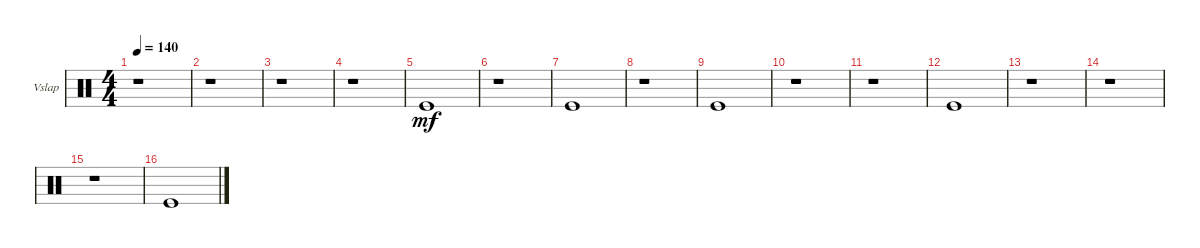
\defaultSystemsLayout 4
\bracketExtendMode groupsimilarinstruments
\firstSystemTrackNameOrientation horizontal
\otherSystemsTrackNameOrientation horizontal
\track ("Vibraslap" "Vslap") {instrument percussion}
\staff {score}
\articulation defaults
\ts (4 4)
\tempo 140
\clef neutral
\scale
0.25
\ks c
r.1{dy f} |
\scale
0.25 r.1 |
\scale
0.25 r.1 |
\scale
0.25 r.1 |
\scale
0.25 "Kick (hit)".1{dy mf} |
\scale
0.25 r.1 |
\scale
0.25 "Kick (hit)".1 |
\scale
0.25 r.1 |
\scale
0.25 "Kick (hit)".1 |
\scale
0.25 r.1 |
\scale
0.25 r.1 |
\scale
0.25 "Kick (hit)".1 |
\scale
0.25 r.1 |
\scale
0.25 r.1 |
\scale
0.25 r.1 |
\scale
0.25 "Kick (hit)".1
